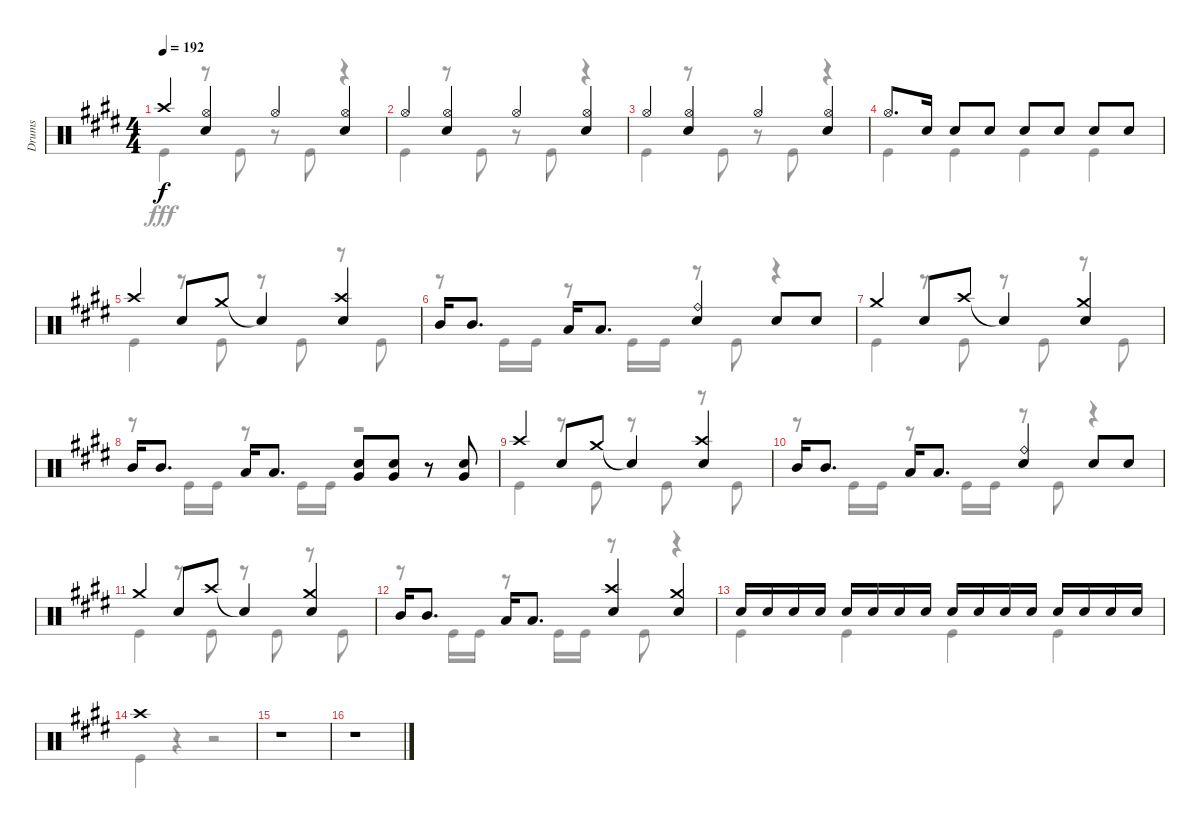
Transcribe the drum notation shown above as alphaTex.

\track ("Drums" "Drums") {instrument percussion}
\staff {score}
\articulation defaults
\voice
\ts (4 4)
\tempo 192
\clef neutral
\ks e "Crash high (hit)".4{dy f}
("Hi-Hat (open)" "Snare (hit) 2").4 "Hi-Hat (open)".4 ("Hi-Hat (open)" "Snare (hit) 2").4 |
"Hi-Hat (open)".4 ("Hi-Hat (open)" "Snare (hit) 2").4 "Hi-Hat (open)".4 ("Hi-Hat (open)" "Snare (hit) 2").4 |
"Hi-Hat (open)".4 ("Hi-Hat (open)" "Snare (hit) 2").4 "Hi-Hat (open)".4 ("Hi-Hat (open)" "Snare (hit) 2").4 |
"Hi-Hat (open)".8{d} "Snare (hit) 2".16 "Snare (hit) 2".8 "Snare (hit) 2".8 "Snare (hit) 2".8 "Snare (hit) 2".8 "Snare (hit) 2".8 "Snare (hit) 2".8 |
"Crash high (hit)".4 "Snare (hit) 2".8 "Crash medium (hit)".8 "Snare (hit)"{t}.4 ("Crash high (hit)" "Snare (hit) 2").4 |
"Mid Tom (hit)".16 "Mid Tom (hit)".8{d} "Low Tom (hit)".16 "Low Tom (hit)".8{d} ("Ride (bell)" "Snare (hit) 2").4 "Snare (hit) 2".8 "Snare (hit) 2".8 |
"Crash medium (hit)".4 "Snare (hit) 2".8 "Crash high (hit)".8 "Snare (hit)"{t}.4 ("Crash medium (hit)" "Snare (hit) 2").4 |
"Mid Tom (hit)".16 "Mid Tom (hit)".8{d} "Low Tom (hit)".16 "Low Tom (hit)".8{d} ("Snare (hit) 2" "Very Low Tom (hit)").8 ("Snare (hit) 2" "Very Low Tom (hit)").8 r.8 ("Snare (hit) 2" "Very Low Tom (hit)").8 |
"Crash high (hit)".4 "Snare (hit) 2".8 "Crash medium (hit)".8 "Snare (hit)"{t}.4 ("Crash high (hit)" "Snare (hit) 2").4 |
"Mid Tom (hit)".16 "Mid Tom (hit)".8{d} "Low Tom (hit)".16 "Low Tom (hit)".8{d} ("Ride (bell)" "Snare (hit) 2").4 "Snare (hit) 2".8 "Snare (hit) 2".8 |
"Crash medium (hit)".4 "Snare (hit) 2".8 "Crash high (hit)".8 "Snare (hit)"{t}.4 ("Crash medium (hit)" "Snare (hit) 2").4 |
"Mid Tom (hit)".16 "Mid Tom (hit)".8{d} "Low Tom (hit)".16 "Low Tom (hit)".8{d} ("Crash high (hit)" "Snare (hit) 2").4 ("Crash medium (hit)" "Snare (hit) 2").4 |
"Snare (hit) 2".16 "Snare (hit) 2".16 "Snare (hit) 2".16 "Snare (hit) 2".16 "Snare (hit) 2".16 "Snare (hit) 2".16 "Snare (hit) 2".16 "Snare (hit) 2".16 "Snare (hit) 2".16 "Snare (hit) 2".16 "Snare (hit) 2".16 "Snare (hit) 2".16 "Snare (hit) 2".16 "Snare (hit) 2".16 "Snare (hit) 2".16 "Snare (hit) 2".16 |
"Crash high (hit)".1 |
r.1 |
r.1
\voice
\clef neutral
\ottava regular
\simile none
\ks e "Kick (hit)".4{dy fff}
r.8 "Kick (hit)".8 r.8 "Kick (hit)".8 r.4 |
"Kick (hit)".4 r.8 "Kick (hit)".8 r.8 "Kick (hit)".8 r.4 |
"Kick (hit)".4 r.8 "Kick (hit)".8 r.8 "Kick (hit)".8 r.4 |
"Kick (hit)".4 "Kick (hit)".4 "Kick (hit)".4 "Kick (hit)".4 |
"Kick (hit)".4 r.8 "Kick (hit)".8 r.8 "Kick (hit)".8 r.8 "Kick (hit)".8 |
r.8 "Kick (hit)".16 "Kick (hit)".16 r.8 "Kick (hit)".16 "Kick (hit)".16 r.8 "Kick (hit)".8 r.4 |
"Kick (hit)".4 r.8 "Kick (hit)".8 r.8 "Kick (hit)".8 r.8 "Kick (hit)".8 |
r.8 "Kick (hit)".16 "Kick (hit)".16 r.8 "Kick (hit)".16 "Kick (hit)".16 r.2 |
"Kick (hit)".4 r.8 "Kick (hit)".8 r.8 "Kick (hit)".8 r.8 "Kick (hit)".8 |
r.8 "Kick (hit)".16 "Kick (hit)".16 r.8 "Kick (hit)".16 "Kick (hit)".16 r.8 "Kick (hit)".8 r.4 |
"Kick (hit)".4 r.8 "Kick (hit)".8 r.8 "Kick (hit)".8 r.8 "Kick (hit)".8 |
r.8 "Kick (hit)".16 "Kick (hit)".16 r.8 "Kick (hit)".16 "Kick (hit)".16 r.8 "Kick (hit)".8 r.4 |
"Kick (hit)".4 "Kick (hit)".4 "Kick (hit)".4 "Kick (hit)".4 |
"Kick (hit)".4 r.4 r.2 |
r.1 |
r.1
